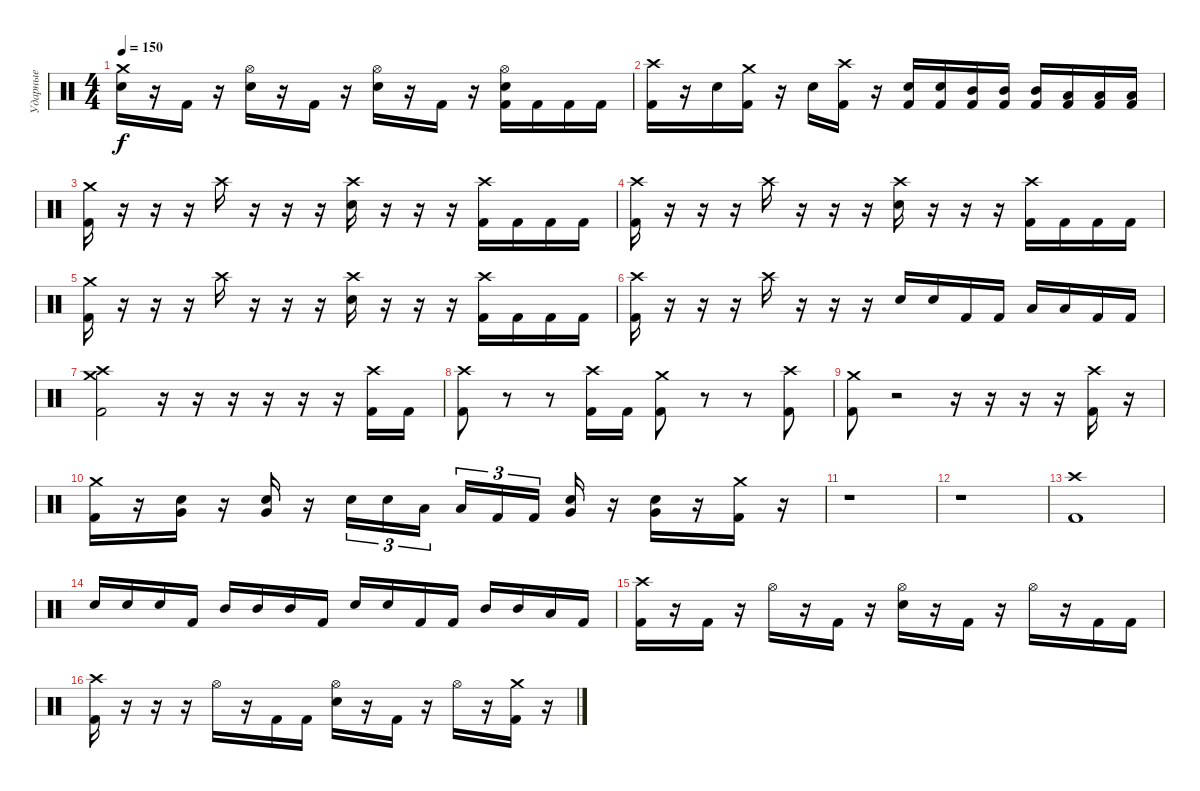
\track ("Ударные" "Ударные") {instrument percussion}
\staff {score}
\articulation defaults
\ts (4 4)
\tempo 150
\clef neutral
\ks c
("Electric Snare (hit)" "Crash medium (hit)").16{dy f} r.16 "Kick (hit) 2".16 r.16 ("Electric Snare (hit)" "Hi-Hat (open)").16 r.16 "Kick (hit) 2".16 r.16 ("Electric Snare (hit)" "Hi-Hat (open)").16 r.16 "Kick (hit) 2".16 r.16 ("Kick (hit) 2" "Electric Snare (hit)" "Hi-Hat (open)").16 "Kick (hit) 2".16 "Kick (hit) 2".16 "Kick (hit) 2".16 |
("Kick (hit) 2" "Crash high (hit)").16 r.16 "Electric Snare (hit)".16 ("Kick (hit) 2" "Crash medium (hit)").16 r.16 "Electric Snare (hit)".16 ("Kick (hit) 2" "Crash high (hit)").16 r.16 ("Kick (hit) 2" "Electric Snare (hit)").16 ("Kick (hit) 2" "Electric Snare (hit)").16 ("Kick (hit) 2" "Mid Tom (hit)").16 ("Kick (hit) 2" "Mid Tom (hit)").16 ("Kick (hit) 2" "Mid Tom (hit)").16 ("Kick (hit) 2" "Low Tom (hit)").16 ("Kick (hit) 2" "Low Tom (hit)").16 ("Kick (hit) 2" "Low Tom (hit)").16 |
("Kick (hit) 2" "Crash medium (hit)").16 r.16 r.16 r.16 "Crash high (hit)".16 r.16 r.16 r.16 ("Electric Snare (hit)" "Crash high (hit)").16 r.16 r.16 r.16 ("Kick (hit) 2" "Crash high (hit)").16 "Kick (hit) 2".16 "Kick (hit) 2".16 "Kick (hit) 2".16 |
("Kick (hit) 2" "Crash high (hit)").16 r.16 r.16 r.16 "Crash high (hit)".16 r.16 r.16 r.16 ("Electric Snare (hit)" "Crash high (hit)").16 r.16 r.16 r.16 ("Kick (hit) 2" "Crash high (hit)").16 "Kick (hit) 2".16 "Kick (hit) 2".16 "Kick (hit) 2".16 |
("Kick (hit) 2" "Crash medium (hit)").16 r.16 r.16 r.16 "Crash high (hit)".16 r.16 r.16 r.16 ("Electric Snare (hit)" "Crash high (hit)").16 r.16 r.16 r.16 ("Kick (hit) 2" "Crash high (hit)").16 "Kick (hit) 2".16 "Kick (hit) 2".16 "Kick (hit) 2".16 |
("Kick (hit) 2" "Crash high (hit)").16 r.16 r.16 r.16 "Crash high (hit)".16 r.16 r.16 r.16 "Electric Snare (hit)".16 "Electric Snare (hit)".16 "Kick (hit) 2".16 "Kick (hit) 2".16 "Low Tom (hit)".16 "Low Tom (hit)".16 "Kick (hit) 2".16 "Kick (hit) 2".16 |
("Kick (hit) 2" "Crash high (hit)" "Crash medium (hit)").2 r.16 r.16 r.16 r.16 r.16 r.16 ("Kick (hit) 2" "Crash high (hit)").16 "Kick (hit) 2".16 |
("Kick (hit) 2" "Crash high (hit)").8 r.8 r.8 ("Kick (hit) 2" "Crash high (hit)").16 "Kick (hit) 2".16 ("Kick (hit) 2" "Crash medium (hit)").8 r.8 r.8 ("Kick (hit) 2" "Crash high (hit)").8 |
("Kick (hit) 2" "Crash medium (hit)").8 r.2 r.16 r.16 r.16 r.16 ("Kick (hit) 2" "Crash high (hit)").16 r.16 |
("Kick (hit) 2" "Crash medium (hit)").16 r.16 ("Electric Snare (hit)" "Very Low Tom (hit)").16 r.16 ("Electric Snare (hit)" "Very Low Tom (hit)").16 r.16 "Electric Snare (hit)".16{tu (3 2)} "Electric Snare (hit)".16{tu (3 2)} "Low Tom (hit)".16{tu (3 2)} "Low Tom (hit)".16{tu (3 2)} "Kick (hit) 2".16{tu (3 2)} "Kick (hit) 2".16{tu (3 2)} ("Electric Snare (hit)" "Very Low Tom (hit)").16 r.16 ("Electric Snare (hit)" "Very Low Tom (hit)").16 r.16 ("Kick (hit) 2" "Crash medium (hit)").16 r.16 |
r.1 |
r.1 |
("Kick (hit) 2" "Crash high (hit)").1 |
"Electric Snare (hit)".16 "Electric Snare (hit)".16 "Electric Snare (hit)".16 "Kick (hit) 2".16 "Mid Tom (hit)".16 "Mid Tom (hit)".16 "Mid Tom (hit)".16 "Kick (hit) 2".16 "Electric Snare (hit)".16 "Electric Snare (hit)".16 "Kick (hit) 2".16 "Kick (hit) 2".16 "Mid Tom (hit)".16 "Mid Tom (hit)".16 "Low Tom (hit)".16 "Kick (hit) 2".16 |
("Kick (hit) 2" "Crash high (hit)").16 r.16 "Kick (hit) 2".16 r.16 "Hi-Hat (open)".16 r.16 "Kick (hit) 2".16 r.16 ("Electric Snare (hit)" "Hi-Hat (open)").16 r.16 "Kick (hit) 2".16 r.16 "Hi-Hat (open)".16 r.16 "Kick (hit) 2".16 "Kick (hit) 2".16 |
("Kick (hit) 2" "Crash high (hit)").16 r.16 r.16 r.16 "Hi-Hat (open)".16 r.16 "Kick (hit) 2".16 "Kick (hit) 2".16 ("Electric Snare (hit)" "Hi-Hat (open)").16 r.16 "Kick (hit) 2".16 r.16 "Hi-Hat (open)".16 r.16 ("Kick (hit) 2" "Crash medium (hit)").16 r.16
